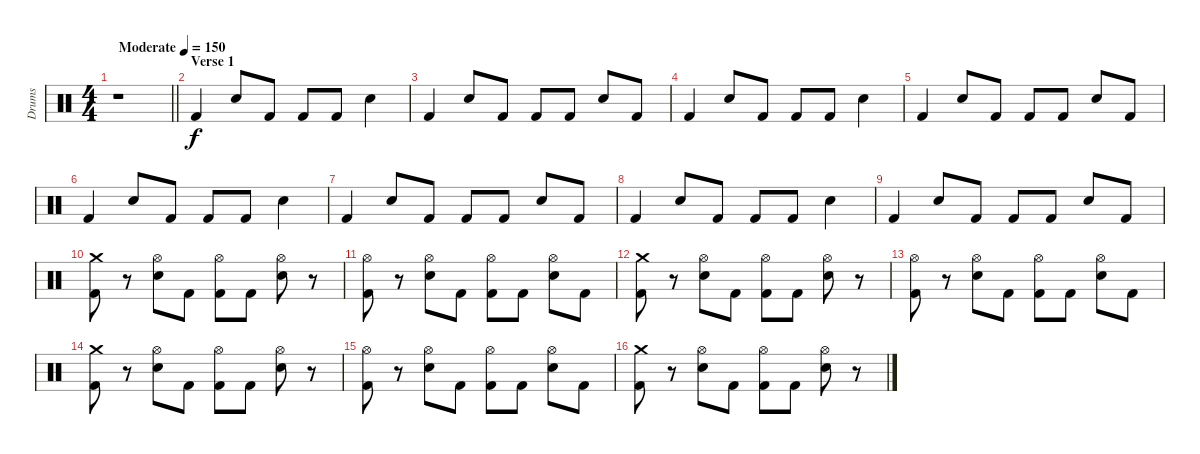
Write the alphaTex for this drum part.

\track ("Drums" "Drums") {instrument percussion}
\staff {score}
\articulation defaults
\ts (4 4)
\tempo (150 "Moderate")
\clef neutral
\barLineRight lightlight
\ks c
r.1{dy f} |
\section ("" "Verse 1")
"Kick (hit) 2".4 "Electric Snare (hit)".8 "Kick (hit) 2".8 "Kick (hit) 2".8 "Kick (hit) 2".8 "Electric Snare (hit)".4 |
"Kick (hit) 2".4 "Electric Snare (hit)".8 "Kick (hit) 2".8 "Kick (hit) 2".8 "Kick (hit) 2".8 "Electric Snare (hit)".8 "Kick (hit) 2".8 |
"Kick (hit) 2".4 "Electric Snare (hit)".8 "Kick (hit) 2".8 "Kick (hit) 2".8 "Kick (hit) 2".8 "Electric Snare (hit)".4 |
"Kick (hit) 2".4 "Electric Snare (hit)".8 "Kick (hit) 2".8 "Kick (hit) 2".8 "Kick (hit) 2".8 "Electric Snare (hit)".8 "Kick (hit) 2".8 |
"Kick (hit) 2".4 "Electric Snare (hit)".8 "Kick (hit) 2".8 "Kick (hit) 2".8 "Kick (hit) 2".8 "Electric Snare (hit)".4 |
"Kick (hit) 2".4 "Electric Snare (hit)".8 "Kick (hit) 2".8 "Kick (hit) 2".8 "Kick (hit) 2".8 "Electric Snare (hit)".8 "Kick (hit) 2".8 |
"Kick (hit) 2".4 "Electric Snare (hit)".8 "Kick (hit) 2".8 "Kick (hit) 2".8 "Kick (hit) 2".8 "Electric Snare (hit)".4 |
"Kick (hit) 2".4 "Electric Snare (hit)".8 "Kick (hit) 2".8 "Kick (hit) 2".8 "Kick (hit) 2".8 "Electric Snare (hit)".8 "Kick (hit) 2".8 |
("Crash medium (hit)" "Kick (hit) 2").8 r.8 ("Hi-Hat (open)" "Electric Snare (hit)").8 "Kick (hit) 2".8 ("Hi-Hat (open)" "Kick (hit) 2").8 "Kick (hit) 2".8 ("Hi-Hat (open)" "Electric Snare (hit)").8 r.8 |
("Hi-Hat (open)" "Kick (hit) 2").8 r.8 ("Hi-Hat (open)" "Electric Snare (hit)").8 "Kick (hit) 2".8 ("Hi-Hat (open)" "Kick (hit) 2").8 "Kick (hit) 2".8 ("Hi-Hat (open)" "Electric Snare (hit)").8 "Kick (hit) 2".8 |
("Crash medium (hit)" "Kick (hit) 2").8 r.8 ("Hi-Hat (open)" "Electric Snare (hit)").8 "Kick (hit) 2".8 ("Hi-Hat (open)" "Kick (hit) 2").8 "Kick (hit) 2".8 ("Hi-Hat (open)" "Electric Snare (hit)").8 r.8 |
("Hi-Hat (open)" "Kick (hit) 2").8 r.8 ("Hi-Hat (open)" "Electric Snare (hit)").8 "Kick (hit) 2".8 ("Hi-Hat (open)" "Kick (hit) 2").8 "Kick (hit) 2".8 ("Hi-Hat (open)" "Electric Snare (hit)").8 "Kick (hit) 2".8 |
("Crash medium (hit)" "Kick (hit) 2").8 r.8 ("Hi-Hat (open)" "Electric Snare (hit)").8 "Kick (hit) 2".8 ("Hi-Hat (open)" "Kick (hit) 2").8 "Kick (hit) 2".8 ("Hi-Hat (open)" "Electric Snare (hit)").8 r.8 |
("Hi-Hat (open)" "Kick (hit) 2").8 r.8 ("Hi-Hat (open)" "Electric Snare (hit)").8 "Kick (hit) 2".8 ("Hi-Hat (open)" "Kick (hit) 2").8 "Kick (hit) 2".8 ("Hi-Hat (open)" "Electric Snare (hit)").8 "Kick (hit) 2".8 |
("Crash medium (hit)" "Kick (hit) 2").8 r.8 ("Hi-Hat (open)" "Electric Snare (hit)").8 "Kick (hit) 2".8 ("Hi-Hat (open)" "Kick (hit) 2").8 "Kick (hit) 2".8 ("Hi-Hat (open)" "Electric Snare (hit)").8 r.8
